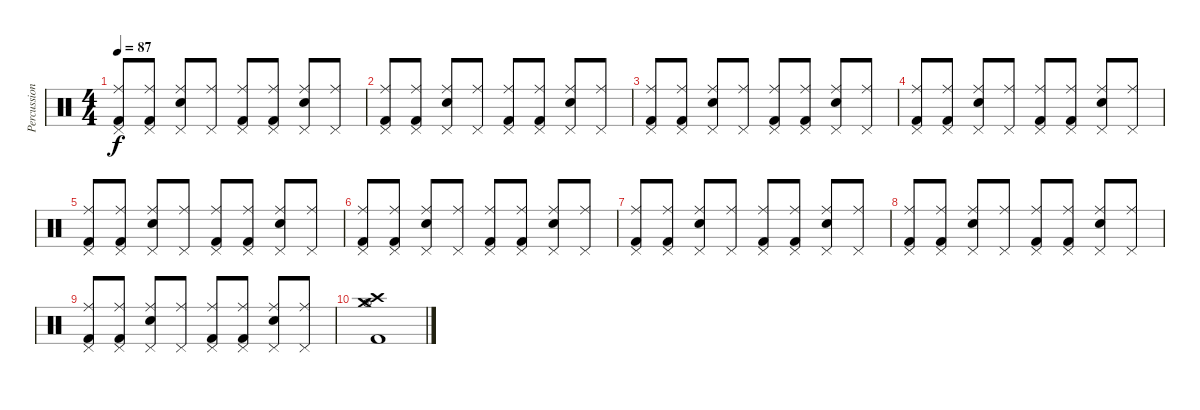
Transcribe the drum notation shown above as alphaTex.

\track ("Percussion" "Percussion") {instrument percussion}
\staff {score}
\articulation defaults
\ts (4 4)
\tempo 87
\clef neutral
\ks c
("Pedal Hi-Hat (hit)" "Ride (middle)" "Kick (hit) 2").8{dy f} ("Pedal Hi-Hat (hit)" "Ride (middle)" "Kick (hit) 2").8 ("Pedal Hi-Hat (hit)" "Ride (middle)" "Electric Snare (hit)").8 ("Pedal Hi-Hat (hit)" "Ride (middle)").8 ("Pedal Hi-Hat (hit)" "Ride (middle)" "Kick (hit) 2").8 ("Pedal Hi-Hat (hit)" "Ride (middle)" "Kick (hit) 2").8 ("Pedal Hi-Hat (hit)" "Ride (middle)" "Electric Snare (hit)").8 ("Pedal Hi-Hat (hit)" "Ride (middle)").8 |
("Pedal Hi-Hat (hit)" "Ride (middle)" "Kick (hit) 2").8 ("Pedal Hi-Hat (hit)" "Ride (middle)" "Kick (hit) 2").8 ("Pedal Hi-Hat (hit)" "Ride (middle)" "Electric Snare (hit)").8 ("Pedal Hi-Hat (hit)" "Ride (middle)").8 ("Pedal Hi-Hat (hit)" "Ride (middle)" "Kick (hit) 2").8 ("Pedal Hi-Hat (hit)" "Ride (middle)" "Kick (hit) 2").8 ("Pedal Hi-Hat (hit)" "Ride (middle)" "Electric Snare (hit)").8 ("Pedal Hi-Hat (hit)" "Ride (middle)").8 |
("Pedal Hi-Hat (hit)" "Ride (middle)" "Kick (hit) 2").8 ("Pedal Hi-Hat (hit)" "Ride (middle)" "Kick (hit) 2").8 ("Pedal Hi-Hat (hit)" "Ride (middle)" "Electric Snare (hit)").8 ("Pedal Hi-Hat (hit)" "Ride (middle)").8 ("Pedal Hi-Hat (hit)" "Ride (middle)" "Kick (hit) 2").8 ("Pedal Hi-Hat (hit)" "Ride (middle)" "Kick (hit) 2").8 ("Pedal Hi-Hat (hit)" "Ride (middle)" "Electric Snare (hit)").8 ("Pedal Hi-Hat (hit)" "Ride (middle)").8 |
("Pedal Hi-Hat (hit)" "Ride (middle)" "Kick (hit) 2").8 ("Pedal Hi-Hat (hit)" "Ride (middle)" "Kick (hit) 2").8 ("Pedal Hi-Hat (hit)" "Ride (middle)" "Electric Snare (hit)").8 ("Pedal Hi-Hat (hit)" "Ride (middle)").8 ("Pedal Hi-Hat (hit)" "Ride (middle)" "Kick (hit) 2").8 ("Pedal Hi-Hat (hit)" "Ride (middle)" "Kick (hit) 2").8 ("Pedal Hi-Hat (hit)" "Ride (middle)" "Electric Snare (hit)").8 ("Pedal Hi-Hat (hit)" "Ride (middle)").8 |
("Pedal Hi-Hat (hit)" "Ride (middle)" "Kick (hit) 2").8 ("Pedal Hi-Hat (hit)" "Ride (middle)" "Kick (hit) 2").8 ("Pedal Hi-Hat (hit)" "Ride (middle)" "Electric Snare (hit)").8 ("Pedal Hi-Hat (hit)" "Ride (middle)").8 ("Pedal Hi-Hat (hit)" "Ride (middle)" "Kick (hit) 2").8 ("Pedal Hi-Hat (hit)" "Ride (middle)" "Kick (hit) 2").8 ("Pedal Hi-Hat (hit)" "Ride (middle)" "Electric Snare (hit)").8 ("Pedal Hi-Hat (hit)" "Ride (middle)").8 |
("Pedal Hi-Hat (hit)" "Ride (middle)" "Kick (hit) 2").8 ("Pedal Hi-Hat (hit)" "Ride (middle)" "Kick (hit) 2").8 ("Pedal Hi-Hat (hit)" "Ride (middle)" "Electric Snare (hit)").8 ("Pedal Hi-Hat (hit)" "Ride (middle)").8 ("Pedal Hi-Hat (hit)" "Ride (middle)" "Kick (hit) 2").8 ("Pedal Hi-Hat (hit)" "Ride (middle)" "Kick (hit) 2").8 ("Pedal Hi-Hat (hit)" "Ride (middle)" "Electric Snare (hit)").8 ("Pedal Hi-Hat (hit)" "Ride (middle)").8 |
("Pedal Hi-Hat (hit)" "Ride (middle)" "Kick (hit) 2").8 ("Pedal Hi-Hat (hit)" "Ride (middle)" "Kick (hit) 2").8 ("Pedal Hi-Hat (hit)" "Ride (middle)" "Electric Snare (hit)").8 ("Pedal Hi-Hat (hit)" "Ride (middle)").8 ("Pedal Hi-Hat (hit)" "Ride (middle)" "Kick (hit) 2").8 ("Pedal Hi-Hat (hit)" "Ride (middle)" "Kick (hit) 2").8 ("Pedal Hi-Hat (hit)" "Ride (middle)" "Electric Snare (hit)").8 ("Pedal Hi-Hat (hit)" "Ride (middle)").8 |
("Pedal Hi-Hat (hit)" "Ride (middle)" "Kick (hit) 2").8 ("Pedal Hi-Hat (hit)" "Ride (middle)" "Kick (hit) 2").8 ("Pedal Hi-Hat (hit)" "Ride (middle)" "Electric Snare (hit)").8 ("Pedal Hi-Hat (hit)" "Ride (middle)").8 ("Pedal Hi-Hat (hit)" "Ride (middle)" "Kick (hit) 2").8 ("Pedal Hi-Hat (hit)" "Ride (middle)" "Kick (hit) 2").8 ("Pedal Hi-Hat (hit)" "Ride (middle)" "Electric Snare (hit)").8 ("Pedal Hi-Hat (hit)" "Ride (middle)").8 |
("Pedal Hi-Hat (hit)" "Ride (middle)" "Kick (hit) 2").8 ("Pedal Hi-Hat (hit)" "Ride (middle)" "Kick (hit) 2").8 ("Pedal Hi-Hat (hit)" "Ride (middle)" "Electric Snare (hit)").8 ("Pedal Hi-Hat (hit)" "Ride (middle)").8 ("Pedal Hi-Hat (hit)" "Ride (middle)" "Kick (hit) 2").8 ("Pedal Hi-Hat (hit)" "Ride (middle)" "Kick (hit) 2").8 ("Pedal Hi-Hat (hit)" "Ride (middle)" "Electric Snare (hit)").8 ("Pedal Hi-Hat (hit)" "Ride (middle)").8 |
("Crash high (hit)" "Crash medium (hit)" "Hi-Hat (open)" "Kick (hit) 2").1
